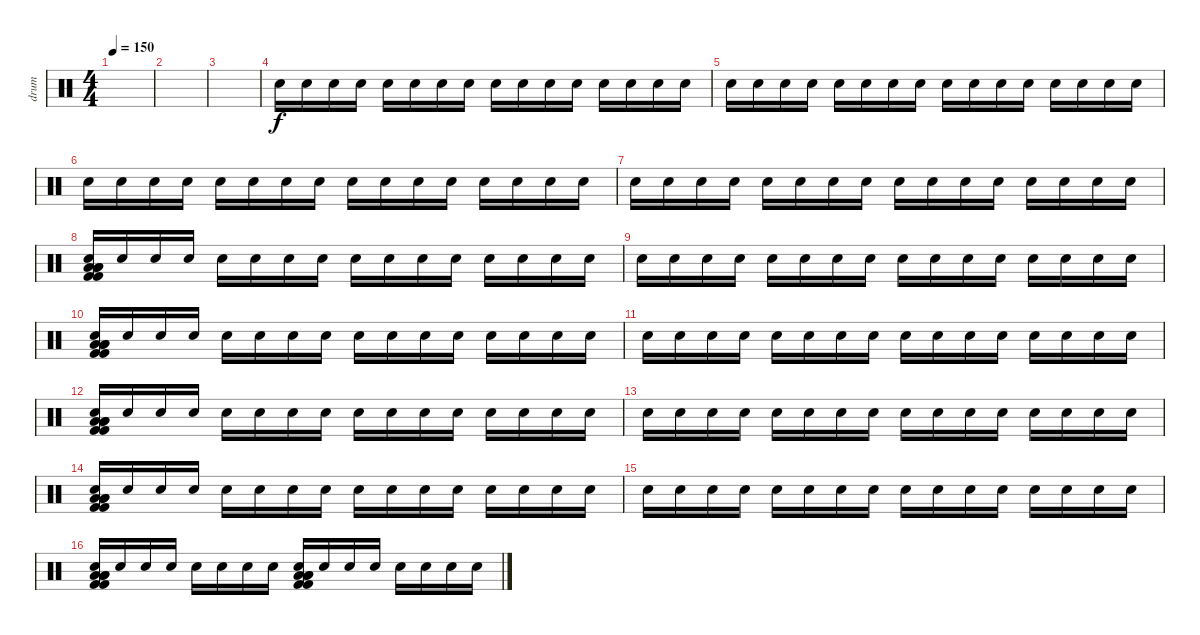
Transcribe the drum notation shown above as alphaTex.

\track ("drum" "drum") {instrument percussion}
\staff {score}
\articulation defaults
\ts (4 4)
\tempo 150
\clef neutral
\ks c
|
|
|
"Electric Snare (hit)".16{volume 9} "Electric Snare (hit)".16 "Electric Snare (hit)".16 "Electric Snare (hit)".16 "Electric Snare (hit)".16 "Electric Snare (hit)".16 "Electric Snare (hit)".16 "Electric Snare (hit)".16 "Electric Snare (hit)".16 "Electric Snare (hit)".16 "Electric Snare (hit)".16 "Electric Snare (hit)".16 "Electric Snare (hit)".16 "Electric Snare (hit)".16 "Electric Snare (hit)".16 "Electric Snare (hit)".16 |
"Electric Snare (hit)".16 "Electric Snare (hit)".16 "Electric Snare (hit)".16 "Electric Snare (hit)".16 "Electric Snare (hit)".16 "Electric Snare (hit)".16 "Electric Snare (hit)".16 "Electric Snare (hit)".16 "Electric Snare (hit)".16 "Electric Snare (hit)".16 "Electric Snare (hit)".16 "Electric Snare (hit)".16 "Electric Snare (hit)".16 "Electric Snare (hit)".16 "Electric Snare (hit)".16 "Electric Snare (hit)".16 |
"Electric Snare (hit)".16 "Electric Snare (hit)".16 "Electric Snare (hit)".16 "Electric Snare (hit)".16 "Electric Snare (hit)".16 "Electric Snare (hit)".16 "Electric Snare (hit)".16 "Electric Snare (hit)".16 "Electric Snare (hit)".16 "Electric Snare (hit)".16 "Electric Snare (hit)".16 "Electric Snare (hit)".16 "Electric Snare (hit)".16 "Electric Snare (hit)".16 "Electric Snare (hit)".16 "Electric Snare (hit)".16 |
"Electric Snare (hit)".16 "Electric Snare (hit)".16 "Electric Snare (hit)".16 "Electric Snare (hit)".16 "Electric Snare (hit)".16 "Electric Snare (hit)".16 "Electric Snare (hit)".16 "Electric Snare (hit)".16 "Electric Snare (hit)".16 "Electric Snare (hit)".16 "Electric Snare (hit)".16 "Electric Snare (hit)".16 "Electric Snare (hit)".16 "Electric Snare (hit)".16 "Electric Snare (hit)".16 "Electric Snare (hit)".16 |
("Low Floor Tom (hit)" "Kick (hit) 2" "Kick (hit) 2" "Low Floor Tom (hit)" "Low Floor Tom (hit)" "Electric Snare (hit)").16 "Electric Snare (hit)".16 "Electric Snare (hit)".16 "Electric Snare (hit)".16 "Electric Snare (hit)".16 "Electric Snare (hit)".16 "Electric Snare (hit)".16 "Electric Snare (hit)".16 "Electric Snare (hit)".16 "Electric Snare (hit)".16 "Electric Snare (hit)".16 "Electric Snare (hit)".16 "Electric Snare (hit)".16 "Electric Snare (hit)".16 "Electric Snare (hit)".16 "Electric Snare (hit)".16 |
"Electric Snare (hit)".16 "Electric Snare (hit)".16 "Electric Snare (hit)".16 "Electric Snare (hit)".16 "Electric Snare (hit)".16 "Electric Snare (hit)".16 "Electric Snare (hit)".16 "Electric Snare (hit)".16 "Electric Snare (hit)".16 "Electric Snare (hit)".16 "Electric Snare (hit)".16 "Electric Snare (hit)".16 "Electric Snare (hit)".16 "Electric Snare (hit)".16 "Electric Snare (hit)".16 "Electric Snare (hit)".16 |
("Low Floor Tom (hit)" "Kick (hit) 2" "Kick (hit) 2" "Low Floor Tom (hit)" "Low Floor Tom (hit)" "Electric Snare (hit)").16 "Electric Snare (hit)".16 "Electric Snare (hit)".16 "Electric Snare (hit)".16 "Electric Snare (hit)".16 "Electric Snare (hit)".16 "Electric Snare (hit)".16 "Electric Snare (hit)".16 "Electric Snare (hit)".16 "Electric Snare (hit)".16 "Electric Snare (hit)".16 "Electric Snare (hit)".16 "Electric Snare (hit)".16 "Electric Snare (hit)".16 "Electric Snare (hit)".16 "Electric Snare (hit)".16 |
"Electric Snare (hit)".16 "Electric Snare (hit)".16 "Electric Snare (hit)".16 "Electric Snare (hit)".16 "Electric Snare (hit)".16 "Electric Snare (hit)".16 "Electric Snare (hit)".16 "Electric Snare (hit)".16 "Electric Snare (hit)".16 "Electric Snare (hit)".16 "Electric Snare (hit)".16 "Electric Snare (hit)".16 "Electric Snare (hit)".16 "Electric Snare (hit)".16 "Electric Snare (hit)".16 "Electric Snare (hit)".16 |
("Low Floor Tom (hit)" "Kick (hit) 2" "Kick (hit) 2" "Low Floor Tom (hit)" "Low Floor Tom (hit)" "Electric Snare (hit)").16 "Electric Snare (hit)".16 "Electric Snare (hit)".16 "Electric Snare (hit)".16 "Electric Snare (hit)".16 "Electric Snare (hit)".16 "Electric Snare (hit)".16 "Electric Snare (hit)".16 "Electric Snare (hit)".16 "Electric Snare (hit)".16 "Electric Snare (hit)".16 "Electric Snare (hit)".16 "Electric Snare (hit)".16 "Electric Snare (hit)".16 "Electric Snare (hit)".16 "Electric Snare (hit)".16 |
"Electric Snare (hit)".16 "Electric Snare (hit)".16 "Electric Snare (hit)".16 "Electric Snare (hit)".16 "Electric Snare (hit)".16 "Electric Snare (hit)".16 "Electric Snare (hit)".16 "Electric Snare (hit)".16 "Electric Snare (hit)".16 "Electric Snare (hit)".16 "Electric Snare (hit)".16 "Electric Snare (hit)".16 "Electric Snare (hit)".16 "Electric Snare (hit)".16 "Electric Snare (hit)".16 "Electric Snare (hit)".16 |
("Low Floor Tom (hit)" "Kick (hit) 2" "Kick (hit) 2" "Low Floor Tom (hit)" "Low Floor Tom (hit)" "Electric Snare (hit)").16 "Electric Snare (hit)".16 "Electric Snare (hit)".16 "Electric Snare (hit)".16 "Electric Snare (hit)".16 "Electric Snare (hit)".16 "Electric Snare (hit)".16 "Electric Snare (hit)".16 "Electric Snare (hit)".16 "Electric Snare (hit)".16 "Electric Snare (hit)".16 "Electric Snare (hit)".16 "Electric Snare (hit)".16 "Electric Snare (hit)".16 "Electric Snare (hit)".16 "Electric Snare (hit)".16 |
"Electric Snare (hit)".16 "Electric Snare (hit)".16 "Electric Snare (hit)".16 "Electric Snare (hit)".16 "Electric Snare (hit)".16 "Electric Snare (hit)".16 "Electric Snare (hit)".16 "Electric Snare (hit)".16 "Electric Snare (hit)".16 "Electric Snare (hit)".16 "Electric Snare (hit)".16 "Electric Snare (hit)".16 "Electric Snare (hit)".16 "Electric Snare (hit)".16 "Electric Snare (hit)".16 "Electric Snare (hit)".16 |
("Low Floor Tom (hit)" "Kick (hit) 2" "Kick (hit) 2" "Low Floor Tom (hit)" "Low Floor Tom (hit)" "Electric Snare (hit)").16 "Electric Snare (hit)".16 "Electric Snare (hit)".16 "Electric Snare (hit)".16 "Electric Snare (hit)".16 "Electric Snare (hit)".16 "Electric Snare (hit)".16 "Electric Snare (hit)".16 ("Low Floor Tom (hit)" "Kick (hit) 2" "Kick (hit) 2" "Low Floor Tom (hit)" "Low Floor Tom (hit)" "Electric Snare (hit)").16 "Electric Snare (hit)".16 "Electric Snare (hit)".16 "Electric Snare (hit)".16 "Electric Snare (hit)".16 "Electric Snare (hit)".16 "Electric Snare (hit)".16 "Electric Snare (hit)".16
